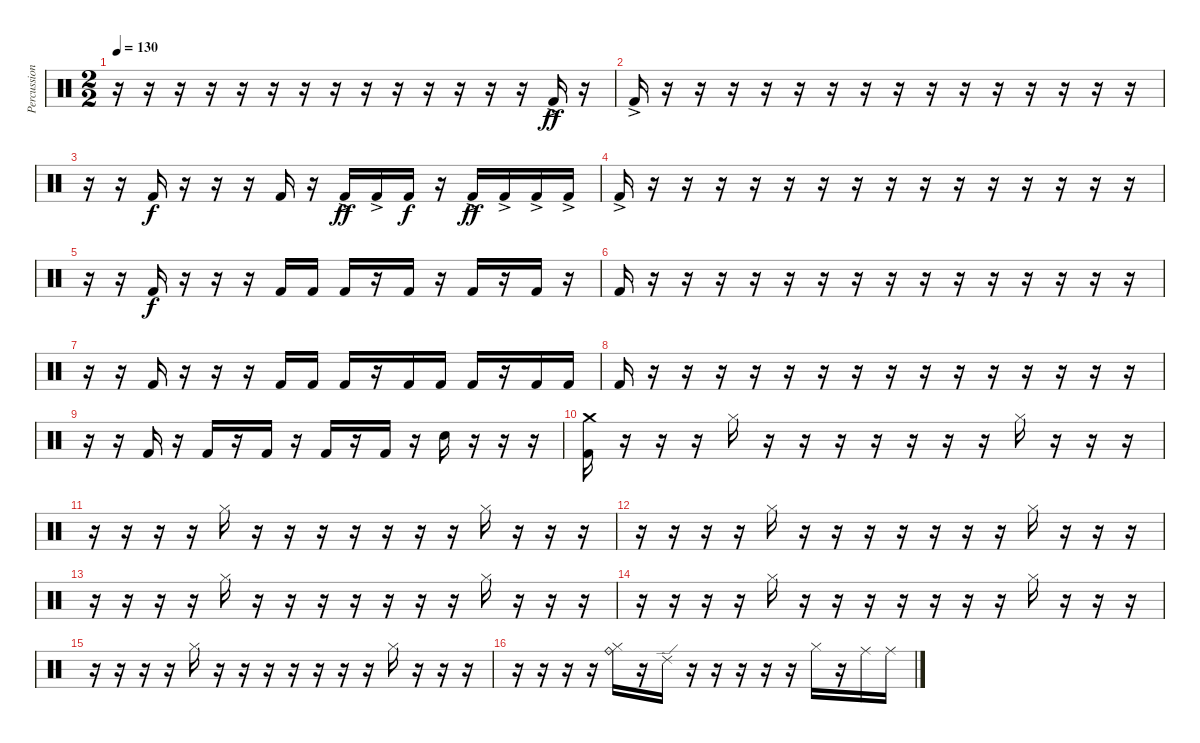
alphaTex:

\track ("Percussion" "Percussion") {instrument percussion}
\staff {score}
\articulation defaults
\ts (2 2)
\tempo 130
\clef neutral
\ks c
r.16{dy mf} r.16 r.16 r.16 r.16 r.16 r.16 r.16 r.16 r.16 r.16 r.16 r.16 r.16 "Kick (hit) 2"{ac}.16{dy ff} r.16 |
"Kick (hit) 2"{ac}.16 r.16 r.16 r.16 r.16 r.16 r.16 r.16 r.16 r.16 r.16 r.16 r.16 r.16 r.16 r.16 |
r.16 r.16 "Kick (hit) 2".16{dy f} r.16 r.16 r.16 "Kick (hit) 2".16 r.16 "Kick (hit) 2"{ac}.16{dy ff} "Kick (hit) 2"{ac}.16 "Kick (hit) 2".16{dy f} r.16 "Kick (hit) 2"{ac}.16{dy ff} "Kick (hit) 2"{ac}.16 "Kick (hit) 2"{ac}.16 "Kick (hit) 2"{ac}.16 |
"Kick (hit) 2"{ac}.16 r.16 r.16 r.16 r.16 r.16 r.16 r.16 r.16 r.16 r.16 r.16 r.16 r.16 r.16 r.16 |
r.16 r.16 "Kick (hit) 2".16{dy f} r.16 r.16 r.16 "Kick (hit) 2".16 "Kick (hit) 2".16 "Kick (hit) 2".16 r.16 "Kick (hit) 2".16 r.16 "Kick (hit) 2".16 r.16 "Kick (hit) 2".16 r.16 |
"Kick (hit) 2".16 r.16 r.16 r.16 r.16 r.16 r.16 r.16 r.16 r.16 r.16 r.16 r.16 r.16 r.16 r.16 |
r.16 r.16 "Kick (hit) 2".16 r.16 r.16 r.16 "Kick (hit) 2".16 "Kick (hit) 2".16 "Kick (hit) 2".16 r.16 "Kick (hit) 2".16 "Kick (hit) 2".16 "Kick (hit) 2".16 r.16 "Kick (hit) 2".16 "Kick (hit) 2".16 |
"Kick (hit) 2".16 r.16 r.16 r.16 r.16 r.16 r.16 r.16 r.16 r.16 r.16 r.16 r.16 r.16 r.16 r.16 |
r.16 r.16 "Kick (hit) 2".16 r.16 "Kick (hit) 2".16 r.16 "Kick (hit) 2".16 r.16 "Kick (hit) 2".16 r.16 "Kick (hit) 2".16 r.16 "Snare (hit) 2".16 r.16 r.16 r.16 |
("Crash medium (hit)" "Kick (hit) 2").16 r.16 r.16 r.16 "Hi-Hat (closed)".16 r.16 r.16 r.16 r.16 r.16 r.16 r.16 "Hi-Hat (closed)".16 r.16 r.16 r.16 |
r.16 r.16 r.16 r.16 "Hi-Hat (closed)".16 r.16 r.16 r.16 r.16 r.16 r.16 r.16 "Hi-Hat (closed)".16 r.16 r.16 r.16 |
r.16 r.16 r.16 r.16 "Hi-Hat (closed)".16 r.16 r.16 r.16 r.16 r.16 r.16 r.16 "Hi-Hat (closed)".16 r.16 r.16 r.16 |
r.16 r.16 r.16 r.16 "Hi-Hat (closed)".16 r.16 r.16 r.16 r.16 r.16 r.16 r.16 "Hi-Hat (closed)".16 r.16 r.16 r.16 |
r.16 r.16 r.16 r.16 "Hi-Hat (closed)".16 r.16 r.16 r.16 r.16 r.16 r.16 r.16 "Hi-Hat (closed)".16 r.16 r.16 r.16 |
r.16 r.16 r.16 r.16 "Hi-Hat (closed)".16 r.16 r.16 r.16 r.16 r.16 r.16 r.16 "Hi-Hat (closed)".16 r.16 r.16 r.16 |
r.16 r.16 r.16 r.16 ("Ride (bell)" "Hi-Hat (closed)").16 r.16 "Ride (edge) 2".16 r.16 r.16 r.16 r.16 r.16 "Hi-Hat (closed)".16 r.16 "Ride (middle)".16 "Ride (middle)".16
